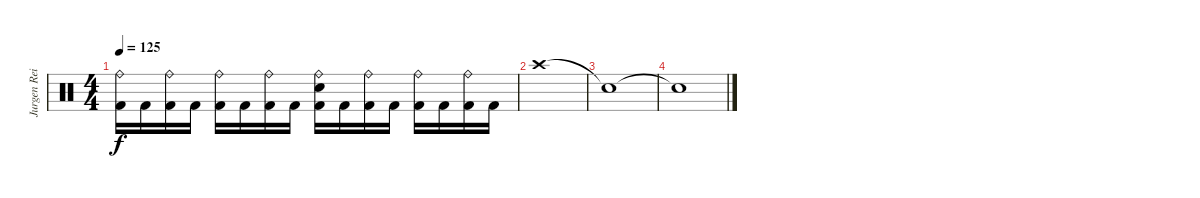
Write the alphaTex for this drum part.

\track ("Jurgen Reil" "Jurgen Rei") {instrument percussion}
\staff {score}
\articulation defaults
\ts (4 4)
\tempo 125
\clef neutral
\ks c
("Ride (bell)" "Kick (hit) 2").16{dy f} "Kick (hit) 2".16 ("Ride (bell)" "Kick (hit) 2").16 "Kick (hit) 2".16 ("Ride (bell)" "Kick (hit) 2").16 "Kick (hit) 2".16 ("Ride (bell)" "Kick (hit) 2").16 "Kick (hit) 2".16 ("Ride (bell)" "Snare (hit) 2" "Kick (hit) 2").16 "Kick (hit) 2".16 ("Ride (bell)" "Kick (hit) 2").16 "Kick (hit) 2".16 ("Ride (bell)" "Kick (hit) 2").16 "Kick (hit) 2".16 ("Ride (bell)" "Kick (hit) 2").16 "Kick (hit) 2".16 |
"Crash high (hit)".1 |
"Snare (hit)"{t}.1 |
"Snare (hit)"{t}.1
